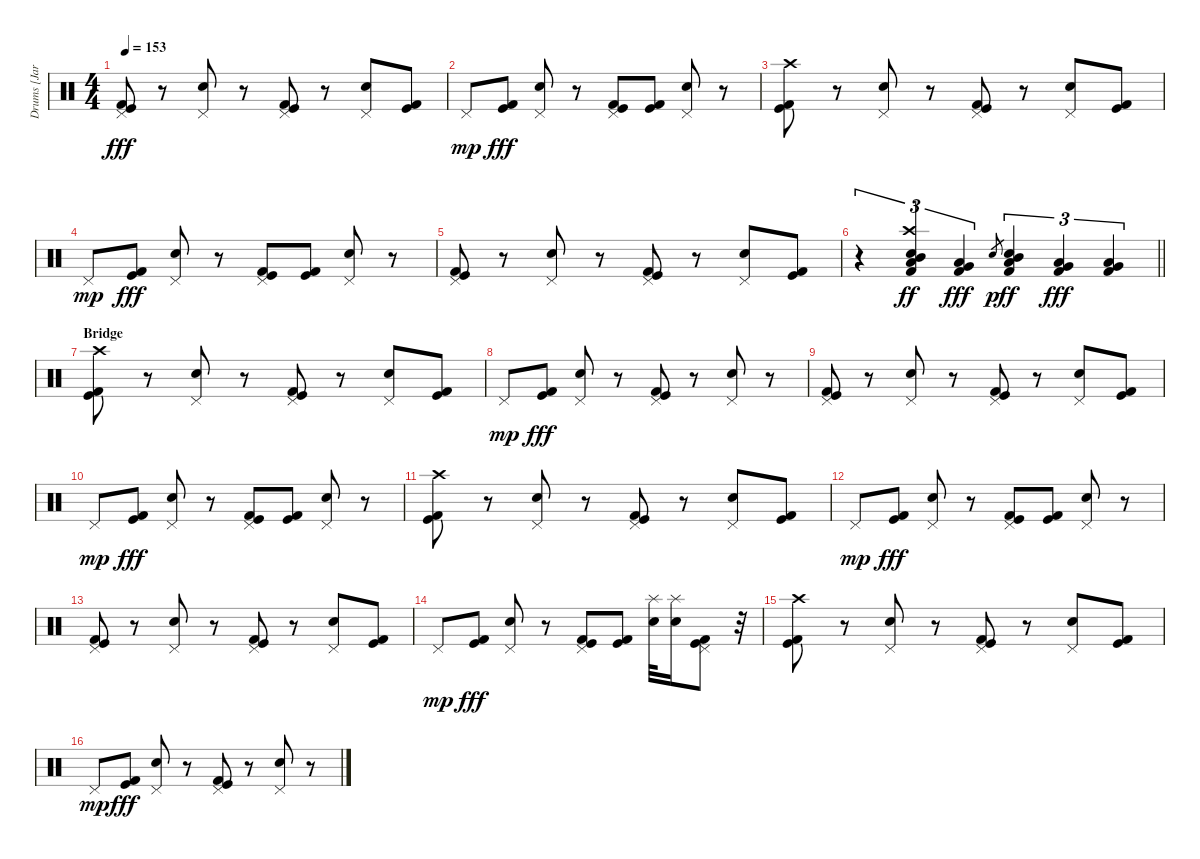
\track ("Drums [Jari]" "Drums [Jar") {instrument percussion}
\staff {score}
\articulation defaults
\ts (4 4)
\tempo 153
\clef neutral
\ks c
("Kick (hit) 2" "Pedal Hi-Hat (hit)" "Kick (hit)").8{dy fff} r.8 ("Pedal Hi-Hat (hit)" "Electric Snare (hit)").8 r.8 ("Kick (hit) 2" "Pedal Hi-Hat (hit)" "Kick (hit)").8 r.8 ("Pedal Hi-Hat (hit)" "Electric Snare (hit)").8 ("Kick (hit) 2" "Kick (hit)").8 |
"Pedal Hi-Hat (hit)".8{dy mp} ("Kick (hit) 2" "Kick (hit)").8{dy fff} ("Pedal Hi-Hat (hit)" "Electric Snare (hit)").8 r.8 ("Kick (hit) 2" "Pedal Hi-Hat (hit)" "Kick (hit)").8 ("Kick (hit) 2" "Kick (hit)").8 ("Pedal Hi-Hat (hit)" "Electric Snare (hit)").8 r.8 |
("Kick (hit) 2" "Crash high (hit)" "Kick (hit)").8 r.8 ("Pedal Hi-Hat (hit)" "Electric Snare (hit)").8 r.8 ("Kick (hit) 2" "Pedal Hi-Hat (hit)" "Kick (hit)").8 r.8 ("Pedal Hi-Hat (hit)" "Electric Snare (hit)").8 ("Kick (hit) 2" "Kick (hit)").8 |
"Pedal Hi-Hat (hit)".8{dy mp} ("Kick (hit) 2" "Kick (hit)").8{dy fff} ("Pedal Hi-Hat (hit)" "Electric Snare (hit)").8 r.8 ("Kick (hit) 2" "Pedal Hi-Hat (hit)" "Kick (hit)").8 ("Kick (hit) 2" "Kick (hit)").8 ("Pedal Hi-Hat (hit)" "Electric Snare (hit)").8 r.8 |
("Kick (hit) 2" "Pedal Hi-Hat (hit)" "Kick (hit)").8 r.8 ("Pedal Hi-Hat (hit)" "Electric Snare (hit)").8 r.8 ("Kick (hit) 2" "Pedal Hi-Hat (hit)" "Kick (hit)").8 r.8 ("Pedal Hi-Hat (hit)" "Electric Snare (hit)").8 ("Kick (hit) 2" "Kick (hit)").8 |
\barLineRight lightlight
r.4{tu (3 2)} ("Mid Tom (hit)" "Crash high (hit)" "Kick (hit) 2" "Electric Snare (hit)" "Low Tom (hit)").4{tu (3 2) dy ff} ("Low Tom (hit)" "Kick (hit) 2" "Very Low Tom (hit)").4{tu (3 2) dy fff} "Electric Snare (hit)".8{gr dy p} ("Mid Tom (hit)" "Kick (hit) 2" "Electric Snare (hit)" "Low Tom (hit)").4{tu (3 2) dy ff} ("Low Tom (hit)" "Kick (hit) 2" "Very Low Tom (hit)").4{tu (3 2) dy fff} ("Very Low Tom (hit)" "Kick (hit) 2" "Low Floor Tom (hit)").4{tu (3 2)} |
\section ("" "Bridge")
("Kick (hit) 2" "Crash high (hit)" "Kick (hit)").8 r.8 ("Pedal Hi-Hat (hit)" "Electric Snare (hit)").8 r.8 ("Kick (hit) 2" "Pedal Hi-Hat (hit)" "Kick (hit)").8 r.8 ("Pedal Hi-Hat (hit)" "Electric Snare (hit)").8 ("Kick (hit) 2" "Kick (hit)").8 |
"Pedal Hi-Hat (hit)".8{dy mp} ("Kick (hit) 2" "Kick (hit)").8{dy fff} ("Pedal Hi-Hat (hit)" "Electric Snare (hit)").8 r.8 ("Kick (hit) 2" "Pedal Hi-Hat (hit)" "Kick (hit)").8 r.8 ("Pedal Hi-Hat (hit)" "Electric Snare (hit)").8 r.8 |
("Kick (hit) 2" "Pedal Hi-Hat (hit)" "Kick (hit)").8 r.8 ("Pedal Hi-Hat (hit)" "Electric Snare (hit)").8 r.8 ("Kick (hit) 2" "Pedal Hi-Hat (hit)" "Kick (hit)").8 r.8 ("Pedal Hi-Hat (hit)" "Electric Snare (hit)").8 ("Kick (hit) 2" "Kick (hit)").8 |
"Pedal Hi-Hat (hit)".8{dy mp} ("Kick (hit) 2" "Kick (hit)").8{dy fff} ("Pedal Hi-Hat (hit)" "Electric Snare (hit)").8 r.8 ("Kick (hit) 2" "Pedal Hi-Hat (hit)" "Kick (hit)").8 ("Kick (hit) 2" "Kick (hit)").8 ("Pedal Hi-Hat (hit)" "Electric Snare (hit)").8 r.8 |
("Kick (hit) 2" "Crash high (hit)" "Kick (hit)").8 r.8 ("Pedal Hi-Hat (hit)" "Electric Snare (hit)").8 r.8 ("Kick (hit) 2" "Pedal Hi-Hat (hit)" "Kick (hit)").8 r.8 ("Pedal Hi-Hat (hit)" "Electric Snare (hit)").8 ("Kick (hit) 2" "Kick (hit)").8 |
"Pedal Hi-Hat (hit)".8{dy mp} ("Kick (hit) 2" "Kick (hit)").8{dy fff} ("Pedal Hi-Hat (hit)" "Electric Snare (hit)").8 r.8 ("Kick (hit) 2" "Pedal Hi-Hat (hit)" "Kick (hit)").8 ("Kick (hit) 2" "Kick (hit)").8 ("Pedal Hi-Hat (hit)" "Electric Snare (hit)").8 r.8 |
("Kick (hit) 2" "Pedal Hi-Hat (hit)" "Kick (hit)").8 r.8 ("Pedal Hi-Hat (hit)" "Electric Snare (hit)").8 r.8 ("Kick (hit) 2" "Pedal Hi-Hat (hit)" "Kick (hit)").8 r.8 ("Pedal Hi-Hat (hit)" "Electric Snare (hit)").8 ("Kick (hit) 2" "Kick (hit)").8 |
"Pedal Hi-Hat (hit)".8{dy mp} ("Kick (hit) 2" "Kick (hit)").8{dy fff} ("Pedal Hi-Hat (hit)" "Electric Snare (hit)").8 r.8 ("Kick (hit) 2" "Pedal Hi-Hat (hit)" "Kick (hit)").8 ("Kick (hit) 2" "Kick (hit)").8 ("Splash (hit)" "Electric Snare (hit)").32 ("Splash (hit)" "Electric Snare (hit)").16 ("Kick (hit) 2" "Pedal Hi-Hat (hit)" "Kick (hit)").8 r.32 |
("Kick (hit) 2" "Crash high (hit)" "Kick (hit)").8 r.8 ("Pedal Hi-Hat (hit)" "Electric Snare (hit)").8 r.8 ("Kick (hit) 2" "Pedal Hi-Hat (hit)" "Kick (hit)").8 r.8 ("Pedal Hi-Hat (hit)" "Electric Snare (hit)").8 ("Kick (hit) 2" "Kick (hit)").8 |
"Pedal Hi-Hat (hit)".8{dy mp} ("Kick (hit) 2" "Kick (hit)").8{dy fff} ("Pedal Hi-Hat (hit)" "Electric Snare (hit)").8 r.8 ("Kick (hit) 2" "Pedal Hi-Hat (hit)" "Kick (hit)").8 r.8 ("Pedal Hi-Hat (hit)" "Electric Snare (hit)").8 r.8
